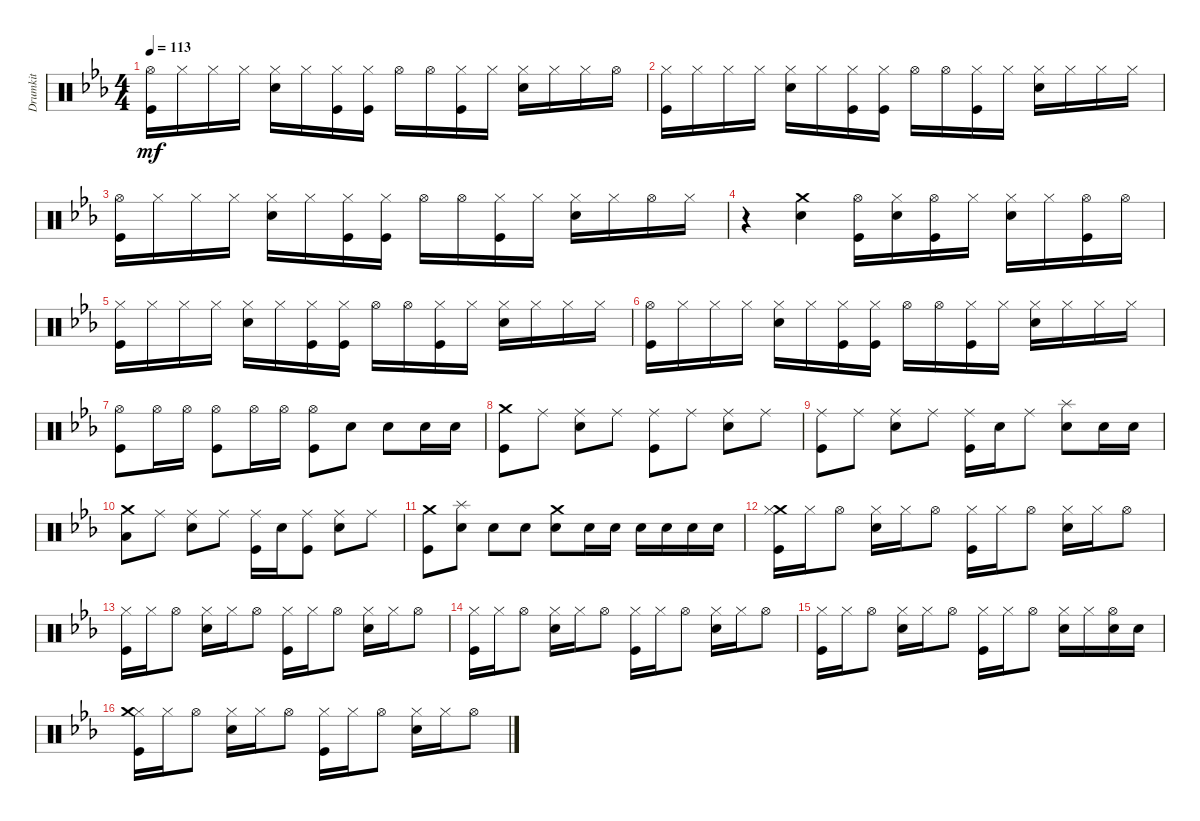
\track ("Drumkit" "Drumkit") {instrument percussion}
\staff {score}
\articulation defaults
\ts (4 4)
\tempo 113
\clef neutral
\ks eb
("Hi-Hat (open)" "Kick (hit)").16{dy mf} "Hi-Hat (closed)".16 "Hi-Hat (closed)".16 "Hi-Hat (closed)".16 ("Hi-Hat (closed)" "Snare (hit) 2").16 "Hi-Hat (closed)".16 ("Hi-Hat (closed)" "Kick (hit)").16 ("Hi-Hat (closed)" "Kick (hit)").16 "Hi-Hat (open)".16 "Hi-Hat (open)".16 ("Hi-Hat (closed)" "Kick (hit)").16 "Hi-Hat (closed)".16 ("Hi-Hat (closed)" "Snare (hit) 2").16 "Hi-Hat (closed)".16 "Hi-Hat (closed)".16 "Hi-Hat (open)".16 |
("Hi-Hat (closed)" "Kick (hit)").16 "Hi-Hat (closed)".16 "Hi-Hat (closed)".16 "Hi-Hat (closed)".16 ("Hi-Hat (closed)" "Snare (hit) 2").16 "Hi-Hat (closed)".16 ("Hi-Hat (closed)" "Kick (hit)").16 ("Hi-Hat (closed)" "Kick (hit)").16 "Hi-Hat (open)".16 "Hi-Hat (open)".16 ("Hi-Hat (closed)" "Kick (hit)").16 "Hi-Hat (closed)".16 ("Hi-Hat (closed)" "Snare (hit) 2").16 "Hi-Hat (closed)".16 "Hi-Hat (closed)".16 "Hi-Hat (closed)".16 |
("Hi-Hat (open)" "Kick (hit)").16 "Hi-Hat (closed)".16 "Hi-Hat (closed)".16 "Hi-Hat (closed)".16 ("Hi-Hat (closed)" "Snare (hit) 2").16 "Hi-Hat (closed)".16 ("Hi-Hat (closed)" "Kick (hit)").16 ("Hi-Hat (closed)" "Kick (hit)").16 "Hi-Hat (open)".16 "Hi-Hat (open)".16 ("Hi-Hat (closed)" "Kick (hit)").16 "Hi-Hat (closed)".16 ("Hi-Hat (closed)" "Snare (hit) 2").16 "Hi-Hat (closed)".16 "Hi-Hat (open)".16 "Hi-Hat (closed)".16 |
r.4 ("Snare (hit) 2" "Crash medium (hit)").4 ("Hi-Hat (open)" "Kick (hit)").16 ("Hi-Hat (closed)" "Snare (hit) 2").16 ("Hi-Hat (open)" "Kick (hit)").16 "Hi-Hat (closed)".16 ("Hi-Hat (closed)" "Snare (hit) 2").16 "Hi-Hat (closed)".16 ("Hi-Hat (open)" "Kick (hit)").16 "Hi-Hat (open)".16 |
("Hi-Hat (closed)" "Kick (hit)").16 "Hi-Hat (closed)".16 "Hi-Hat (closed)".16 "Hi-Hat (closed)".16 ("Hi-Hat (closed)" "Snare (hit) 2").16 "Hi-Hat (closed)".16 ("Hi-Hat (closed)" "Kick (hit)").16 ("Hi-Hat (closed)" "Kick (hit)").16 "Hi-Hat (open)".16 "Hi-Hat (open)".16 ("Hi-Hat (closed)" "Kick (hit)").16 "Hi-Hat (closed)".16 ("Hi-Hat (closed)" "Snare (hit) 2").16 "Hi-Hat (closed)".16 "Hi-Hat (closed)".16 "Hi-Hat (closed)".16 |
("Hi-Hat (open)" "Kick (hit)").16 "Hi-Hat (closed)".16 "Hi-Hat (closed)".16 "Hi-Hat (closed)".16 ("Hi-Hat (closed)" "Snare (hit) 2").16 "Hi-Hat (closed)".16 ("Hi-Hat (closed)" "Kick (hit)").16 ("Hi-Hat (closed)" "Kick (hit)").16 "Hi-Hat (open)".16 "Hi-Hat (open)".16 ("Hi-Hat (closed)" "Kick (hit)").16 "Hi-Hat (closed)".16 ("Hi-Hat (closed)" "Snare (hit) 2").16 "Hi-Hat (closed)".16 "Hi-Hat (closed)".16 "Hi-Hat (closed)".16 |
("Kick (hit)" "Hi-Hat (open)").8 "Hi-Hat (open)".16 "Hi-Hat (open)".16 ("Hi-Hat (open)" "Kick (hit)").8 "Hi-Hat (open)".16 "Hi-Hat (open)".16 ("Hi-Hat (open)" "Kick (hit)").8 "Snare (hit) 2".8 "Snare (hit) 2".8 "Snare (hit) 2".16 "Snare (hit) 2".16 |
("Crash medium (hit)" "Kick (hit)").8 "Ride (middle)".8 ("Ride (middle)" "Snare (hit) 2").8 "Ride (middle)".8 ("Kick (hit)" "Ride (middle)").8 "Ride (middle)".8 ("Ride (middle)" "Snare (hit) 2").8 "Ride (middle)".8 |
("Kick (hit)" "Ride (middle)").8 "Ride (middle)".8 ("Ride (middle)" "Snare (hit) 2").8 "Ride (middle)".8 ("Kick (hit)" "Ride (middle)").16 "Snare (hit) 2".16 "Ride (middle)".8 ("Snare (hit) 2" "Splash (hit)").8 "Snare (hit) 2".16 "Snare (hit) 2".16 |
("Low Floor Tom (hit)" "Crash medium (hit)").8 "Ride (middle)".8 ("Ride (middle)" "Snare (hit) 2").8 "Ride (middle)".8 ("Kick (hit)" "Ride (middle)").16 "Snare (hit) 2".16 ("Kick (hit)" "Ride (middle)").8 ("Snare (hit) 2" "Ride (middle)").8 "Ride (middle)".8 |
("Crash medium (hit)" "Kick (hit)").8 ("Snare (hit) 2" "Splash (hit)").8 "Snare (hit) 2".8 "Snare (hit) 2".8 ("Snare (hit) 2" "Crash medium (hit)").8 "Snare (hit) 2".16 "Snare (hit) 2".16 "Snare (hit) 2".16 "Snare (hit) 2".16 "Snare (hit) 2".16 "Snare (hit) 2".16 |
("Crash medium (hit)" "Hi-Hat (closed)" "Kick (hit)").16 "Hi-Hat (closed)".16 "Hi-Hat (open)".8 ("Hi-Hat (closed)" "Snare (hit) 2").16 "Hi-Hat (closed)".16 "Hi-Hat (open)".8 ("Hi-Hat (closed)" "Kick (hit)").16 "Hi-Hat (closed)".16 "Hi-Hat (open)".8 ("Hi-Hat (closed)" "Snare (hit) 2").16 "Hi-Hat (closed)".16 "Hi-Hat (open)".8 |
("Hi-Hat (closed)" "Kick (hit)").16 "Hi-Hat (closed)".16 "Hi-Hat (open)".8 ("Hi-Hat (closed)" "Snare (hit) 2").16 "Hi-Hat (closed)".16 "Hi-Hat (open)".8 ("Hi-Hat (closed)" "Kick (hit)").16 "Hi-Hat (closed)".16 "Hi-Hat (open)".8 ("Hi-Hat (closed)" "Snare (hit) 2").16 "Hi-Hat (closed)".16 "Hi-Hat (open)".8 |
("Hi-Hat (closed)" "Kick (hit)").16 "Hi-Hat (closed)".16 "Hi-Hat (open)".8 ("Hi-Hat (closed)" "Snare (hit) 2").16 "Hi-Hat (closed)".16 "Hi-Hat (open)".8 ("Hi-Hat (closed)" "Kick (hit)").16 "Hi-Hat (closed)".16 "Hi-Hat (open)".8 ("Hi-Hat (closed)" "Snare (hit) 2").16 "Hi-Hat (closed)".16 "Hi-Hat (open)".8 |
("Hi-Hat (closed)" "Kick (hit)").16 "Hi-Hat (closed)".16 "Hi-Hat (open)".8 ("Hi-Hat (closed)" "Snare (hit) 2").16 "Hi-Hat (closed)".16 "Hi-Hat (open)".8 ("Hi-Hat (closed)" "Kick (hit)").16 "Hi-Hat (closed)".16 "Hi-Hat (open)".8 ("Hi-Hat (closed)" "Snare (hit) 2").16 "Hi-Hat (closed)".16 ("Hi-Hat (open)" "Snare (hit) 2").16 "Snare (hit) 2".16 |
("Hi-Hat (closed)" "Kick (hit)" "Crash medium (hit)").16 "Hi-Hat (closed)".16 "Hi-Hat (open)".8 ("Hi-Hat (closed)" "Snare (hit) 2").16 "Hi-Hat (closed)".16 "Hi-Hat (open)".8 ("Hi-Hat (closed)" "Kick (hit)").16 "Hi-Hat (closed)".16 "Hi-Hat (open)".8 ("Hi-Hat (closed)" "Snare (hit) 2").16 "Hi-Hat (closed)".16 "Hi-Hat (open)".8
